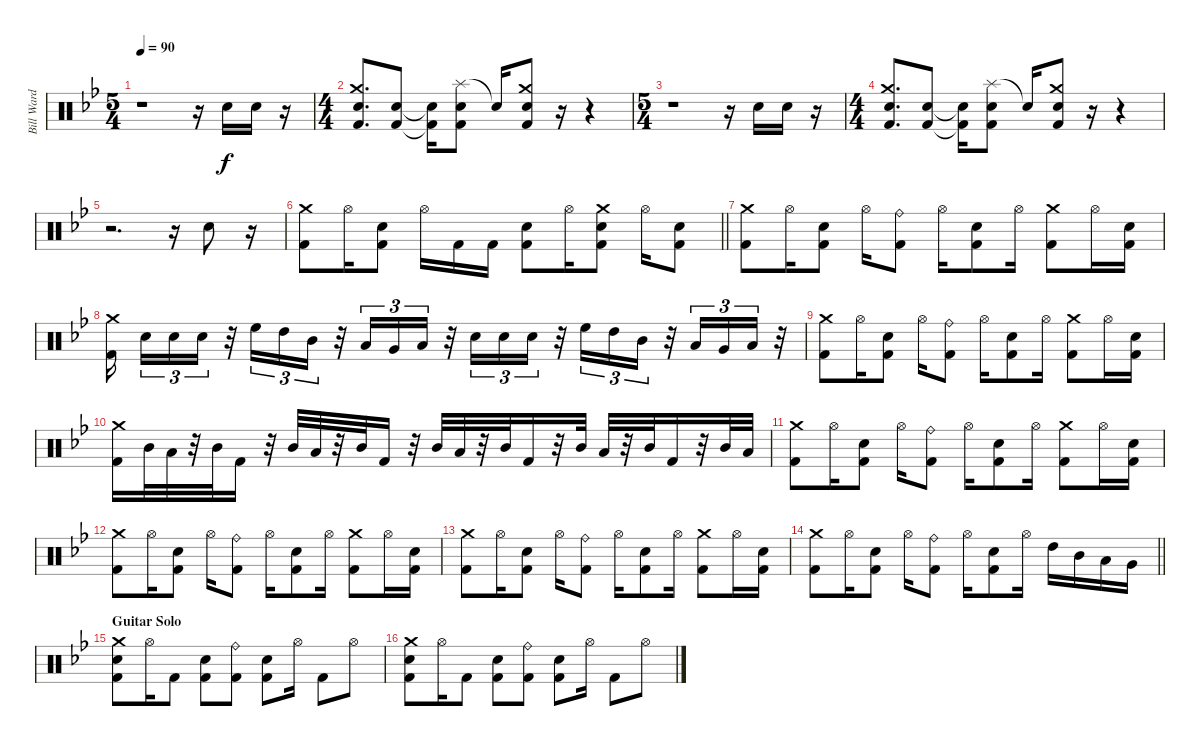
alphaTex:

\track ("Bill Ward" "Bill Ward") {instrument percussion}
\staff {score}
\articulation defaults
\ts (5 4)
\tempo 90
\clef neutral
\ks bb
r.1{dy f} r.16 "Electric Snare (hit)".16 "Electric Snare (hit)".16 r.16 |
\ts (4 4)
("Crash medium (hit)" "Electric Snare (hit)" "Kick (hit) 2").8{d} ("Electric Snare (hit)" "Kick (hit) 2").8 ("Electric Snare (hit)"{t} "Kick (hit) 2"{t}).16 ("Splash (hit)" "Electric Snare (hit)" "Kick (hit) 2").8 "Electric Snare (hit)"{t}.16 ("Crash medium (hit)" "Electric Snare (hit)" "Kick (hit) 2").8 r.16 r.4 |
\ts (5 4)
r.1 r.16 "Electric Snare (hit)".16 "Electric Snare (hit)".16 r.16 |
\ts (4 4)
("Crash medium (hit)" "Electric Snare (hit)" "Kick (hit) 2").8{d} ("Electric Snare (hit)" "Kick (hit) 2").8 ("Electric Snare (hit)"{t} "Kick (hit) 2"{t}).16 ("Splash (hit)" "Electric Snare (hit)" "Kick (hit) 2").8 "Electric Snare (hit)"{t}.16 ("Crash medium (hit)" "Electric Snare (hit)" "Kick (hit) 2").8 r.16 r.4 |
r.2{d} r.16 "Electric Snare (hit)".8 r.16 |
\barLineRight lightlight
("Crash medium (hit)" "Kick (hit) 2").8 "Hi-Hat (open)".16 ("Electric Snare (hit)" "Kick (hit) 2").8 "Hi-Hat (open)".16 "Kick (hit) 2".16 "Kick (hit) 2".16 ("Electric Snare (hit)" "Kick (hit) 2").8 "Hi-Hat (open)".16 ("Crash medium (hit)" "Electric Snare (hit)" "Kick (hit) 2").8 "Hi-Hat (open)".16 ("Electric Snare (hit)" "Kick (hit) 2").8 |
("Crash medium (hit)" "Kick (hit) 2").8 "Hi-Hat (open)".16 ("Electric Snare (hit)" "Kick (hit) 2").8 "Hi-Hat (open)".16 ("Ride (bell)" "Kick (hit) 2").8 "Hi-Hat (open)".16 ("Electric Snare (hit)" "Kick (hit) 2").8 "Hi-Hat (open)".16 ("Crash medium (hit)" "Kick (hit) 2").8 "Hi-Hat (open)".16 ("Electric Snare (hit)" "Kick (hit) 2").16 |
("Crash medium (hit)" "Kick (hit) 2").16{beam splitsecondary} "Electric Snare (hit)".16{tu (3 2)} "Electric Snare (hit)".16{tu (3 2)} "Electric Snare (hit)".16{tu (3 2)} r.32 "High Floor Tom (hit)".16{tu (3 2)} "High Tom (hit)".16{tu (3 2)} "Mid Tom (hit)".16{tu (3 2)} r.32 "Low Tom (hit)".16{tu (3 2)} "Very Low Tom (hit)".16{tu (3 2)} "Low Floor Tom (hit)".16{tu (3 2)} r.32 "Electric Snare (hit)".16{tu (3 2)} "Electric Snare (hit)".16{tu (3 2)} "Electric Snare (hit)".16{tu (3 2)} r.32 "High Floor Tom (hit)".16{tu (3 2)} "High Tom (hit)".16{tu (3 2)} "Mid Tom (hit)".16{tu (3 2)} r.32 "Low Tom (hit)".16{tu (3 2)} "Very Low Tom (hit)".16{tu (3 2)} "Low Floor Tom (hit)".16{tu (3 2)} r.32 |
("Crash medium (hit)" "Kick (hit) 2").8 "Hi-Hat (open)".16 ("Electric Snare (hit)" "Kick (hit) 2").8 "Hi-Hat (open)".16 ("Ride (bell)" "Kick (hit) 2").8 "Hi-Hat (open)".16 ("Electric Snare (hit)" "Kick (hit) 2").8 "Hi-Hat (open)".16 ("Crash medium (hit)" "Kick (hit) 2").8 "Hi-Hat (open)".16 ("Electric Snare (hit)" "Kick (hit) 2").16 |
("Crash medium (hit)" "Kick (hit) 2").16 "Mid Tom (hit)".32 "Low Tom (hit)".32 r.32 "Mid Tom (hit)".32 "Kick (hit) 2".16 r.32 "Mid Tom (hit)".32 "Low Tom (hit)".32 r.32 "Mid Tom (hit)".32 "Kick (hit) 2".16 r.32 "Mid Tom (hit)".32 "Low Tom (hit)".32 r.32 "Mid Tom (hit)".32 "Kick (hit) 2".16 r.32 "Mid Tom (hit)".32 "Low Tom (hit)".32 r.32 "Mid Tom (hit)".32 "Kick (hit) 2".16 r.32 "Mid Tom (hit)".32 "Low Tom (hit)".32 |
("Crash medium (hit)" "Kick (hit) 2").8 "Hi-Hat (open)".16 ("Electric Snare (hit)" "Kick (hit) 2").8 "Hi-Hat (open)".16 ("Ride (bell)" "Kick (hit) 2").8 "Hi-Hat (open)".16 ("Electric Snare (hit)" "Kick (hit) 2").8 "Hi-Hat (open)".16 ("Crash medium (hit)" "Kick (hit) 2").8 "Hi-Hat (open)".16 ("Electric Snare (hit)" "Kick (hit) 2").16 |
("Crash medium (hit)" "Kick (hit) 2").8 "Hi-Hat (open)".16 ("Electric Snare (hit)" "Kick (hit) 2").8 "Hi-Hat (open)".16 ("Ride (bell)" "Kick (hit) 2").8 "Hi-Hat (open)".16 ("Electric Snare (hit)" "Kick (hit) 2").8 "Hi-Hat (open)".16 ("Crash medium (hit)" "Kick (hit) 2").8 "Hi-Hat (open)".16 ("Electric Snare (hit)" "Kick (hit) 2").16 |
("Crash medium (hit)" "Kick (hit) 2").8 "Hi-Hat (open)".16 ("Electric Snare (hit)" "Kick (hit) 2").8 "Hi-Hat (open)".16 ("Ride (bell)" "Kick (hit) 2").8 "Hi-Hat (open)".16 ("Electric Snare (hit)" "Kick (hit) 2").8 "Hi-Hat (open)".16 ("Crash medium (hit)" "Kick (hit) 2").8 "Hi-Hat (open)".16 ("Electric Snare (hit)" "Kick (hit) 2").16 |
\barLineRight lightlight
("Crash medium (hit)" "Kick (hit) 2").8 "Hi-Hat (open)".16 ("Electric Snare (hit)" "Kick (hit) 2").8 "Hi-Hat (open)".16 ("Ride (bell)" "Kick (hit) 2").8 "Hi-Hat (open)".16 ("Electric Snare (hit)" "Kick (hit) 2").8 "Hi-Hat (open)".16 "High Tom (hit)".16 "Mid Tom (hit)".16 "Low Tom (hit)".16 "Very Low Tom (hit)".16 |
\section ("" "Guitar Solo")
("Crash medium (hit)" "Electric Snare (hit)" "Kick (hit) 2").8 "Hi-Hat (open)".16 "Kick (hit) 2".8 ("Electric Snare (hit)" "Kick (hit) 2").8 ("Ride (bell)" "Kick (hit) 2").8 ("Electric Snare (hit)" "Kick (hit) 2").8 "Hi-Hat (open)".16 "Kick (hit) 2".8 "Hi-Hat (open)".8 |
("Crash medium (hit)" "Electric Snare (hit)" "Kick (hit) 2").8 "Hi-Hat (open)".16 "Kick (hit) 2".8 ("Electric Snare (hit)" "Kick (hit) 2").8 ("Ride (bell)" "Kick (hit) 2").8 ("Electric Snare (hit)" "Kick (hit) 2").8 "Hi-Hat (open)".16 "Kick (hit) 2".8 "Hi-Hat (open)".8
